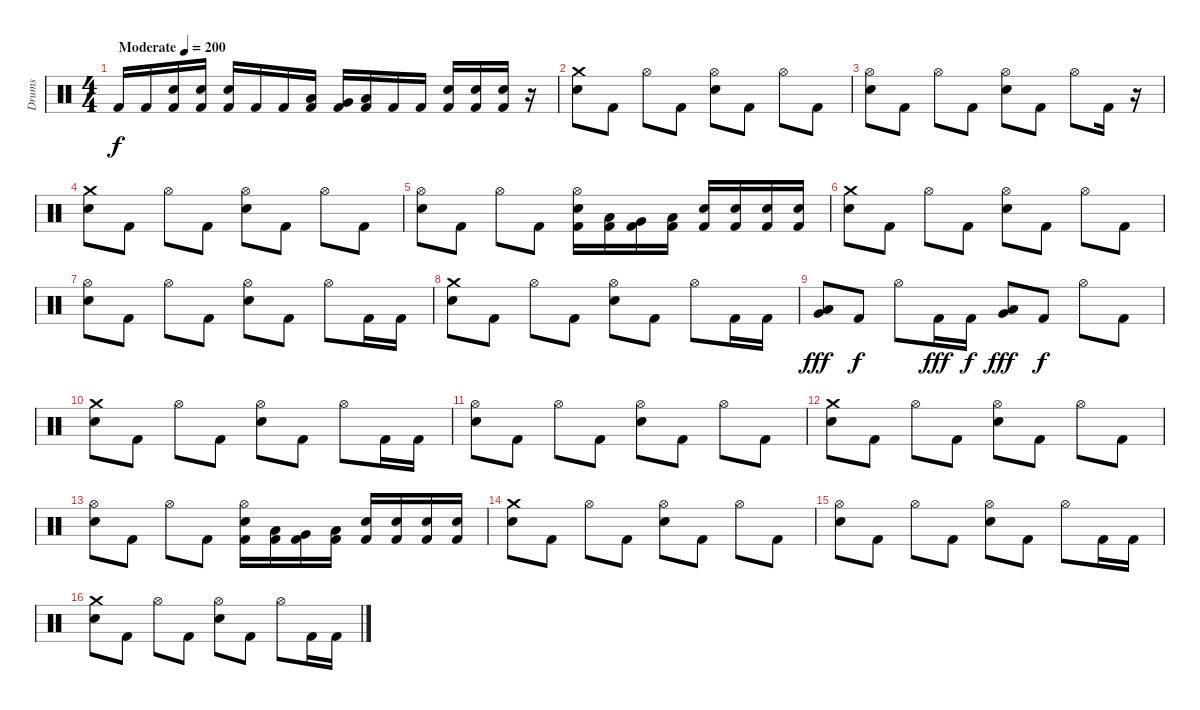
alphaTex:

\track ("Drums" "Drums") {instrument percussion}
\staff {score}
\articulation defaults
\ts (4 4)
\tempo (200 "Moderate")
\clef neutral
\ks c "Kick (hit) 2".16{dy f} "Kick (hit) 2".16
("Electric Snare (hit)" "Kick (hit) 2").16 ("Electric Snare (hit)" "Kick (hit) 2").16 ("Electric Snare (hit)" "Kick (hit) 2").16 "Kick (hit) 2".16 "Kick (hit) 2".16 ("Low Tom (hit)" "Kick (hit) 2").16 ("Very Low Tom (hit)" "Kick (hit) 2").16 ("Low Floor Tom (hit)" "Kick (hit) 2").16 "Kick (hit) 2".16 "Kick (hit) 2".16 ("Electric Snare (hit)" "Kick (hit) 2").16 ("Electric Snare (hit)" "Kick (hit) 2").16 ("Electric Snare (hit)" "Kick (hit) 2").16 r.16 |
("Crash medium (hit)" "Electric Snare (hit)").8 "Kick (hit) 2".8 "Hi-Hat (open)".8 "Kick (hit) 2".8 ("Hi-Hat (open)" "Electric Snare (hit)").8 "Kick (hit) 2".8 "Hi-Hat (open)".8 "Kick (hit) 2".8 |
("Hi-Hat (open)" "Electric Snare (hit)").8 "Kick (hit) 2".8 "Hi-Hat (open)".8 "Kick (hit) 2".8 ("Hi-Hat (open)" "Electric Snare (hit)").8 "Kick (hit) 2".8 "Hi-Hat (open)".8 "Kick (hit) 2".16 r.16 |
("Crash medium (hit)" "Electric Snare (hit)").8 "Kick (hit) 2".8 "Hi-Hat (open)".8 "Kick (hit) 2".8 ("Hi-Hat (open)" "Electric Snare (hit)").8 "Kick (hit) 2".8 "Hi-Hat (open)".8 "Kick (hit) 2".8 |
("Hi-Hat (open)" "Electric Snare (hit)").8 "Kick (hit) 2".8 "Hi-Hat (open)".8 "Kick (hit) 2".8 ("Hi-Hat (open)" "Electric Snare (hit)" "Kick (hit) 2").16 ("Low Tom (hit)" "Kick (hit) 2").16 ("Very Low Tom (hit)" "Kick (hit) 2").16 ("Low Floor Tom (hit)" "Kick (hit) 2").16 ("Electric Snare (hit)" "Kick (hit) 2").16 ("Electric Snare (hit)" "Kick (hit) 2").16 ("Electric Snare (hit)" "Kick (hit) 2").16 ("Electric Snare (hit)" "Kick (hit) 2").16 |
("Crash medium (hit)" "Electric Snare (hit)").8 "Kick (hit) 2".8 "Hi-Hat (open)".8 "Kick (hit) 2".8 ("Hi-Hat (open)" "Electric Snare (hit)").8 "Kick (hit) 2".8 "Hi-Hat (open)".8 "Kick (hit) 2".8 |
("Hi-Hat (open)" "Electric Snare (hit)").8 "Kick (hit) 2".8 "Hi-Hat (open)".8 "Kick (hit) 2".8 ("Hi-Hat (open)" "Electric Snare (hit)").8 "Kick (hit) 2".8 "Hi-Hat (open)".8 "Kick (hit) 2".16 "Kick (hit) 2".16 |
("Crash medium (hit)" "Electric Snare (hit)").8 "Kick (hit) 2".8 "Hi-Hat (open)".8 "Kick (hit) 2".8 ("Hi-Hat (open)" "Electric Snare (hit)").8 "Kick (hit) 2".8 "Hi-Hat (open)".8 "Kick (hit) 2".16 "Kick (hit) 2".16 |
("Very Low Tom (hit)" "Low Floor Tom (hit)").8{dy fff} "Kick (hit) 2".8{dy f} "Hi-Hat (open)".8 "Kick (hit) 2".16{dy fff} "Kick (hit) 2".16{dy f} ("Very Low Tom (hit)" "Low Floor Tom (hit)").8{dy fff} "Kick (hit) 2".8{dy f} "Hi-Hat (open)".8 "Kick (hit) 2".8 |
("Crash medium (hit)" "Electric Snare (hit)").8 "Kick (hit) 2".8 "Hi-Hat (open)".8 "Kick (hit) 2".8 ("Hi-Hat (open)" "Electric Snare (hit)").8 "Kick (hit) 2".8 "Hi-Hat (open)".8 "Kick (hit) 2".16 "Kick (hit) 2".16 |
("Hi-Hat (open)" "Electric Snare (hit)").8 "Kick (hit) 2".8 "Hi-Hat (open)".8 "Kick (hit) 2".8 ("Hi-Hat (open)" "Electric Snare (hit)").8 "Kick (hit) 2".8 "Hi-Hat (open)".8 "Kick (hit) 2".8 |
("Crash medium (hit)" "Electric Snare (hit)").8 "Kick (hit) 2".8 "Hi-Hat (open)".8 "Kick (hit) 2".8 ("Hi-Hat (open)" "Electric Snare (hit)").8 "Kick (hit) 2".8 "Hi-Hat (open)".8 "Kick (hit) 2".8 |
("Hi-Hat (open)" "Electric Snare (hit)").8 "Kick (hit) 2".8 "Hi-Hat (open)".8 "Kick (hit) 2".8 ("Hi-Hat (open)" "Electric Snare (hit)" "Kick (hit) 2").16 ("Low Tom (hit)" "Kick (hit) 2").16 ("Very Low Tom (hit)" "Kick (hit) 2").16 ("Low Floor Tom (hit)" "Kick (hit) 2").16 ("Electric Snare (hit)" "Kick (hit) 2").16 ("Electric Snare (hit)" "Kick (hit) 2").16 ("Electric Snare (hit)" "Kick (hit) 2").16 ("Electric Snare (hit)" "Kick (hit) 2").16 |
("Crash medium (hit)" "Electric Snare (hit)").8 "Kick (hit) 2".8 "Hi-Hat (open)".8 "Kick (hit) 2".8 ("Hi-Hat (open)" "Electric Snare (hit)").8 "Kick (hit) 2".8 "Hi-Hat (open)".8 "Kick (hit) 2".8 |
("Hi-Hat (open)" "Electric Snare (hit)").8 "Kick (hit) 2".8 "Hi-Hat (open)".8 "Kick (hit) 2".8 ("Hi-Hat (open)" "Electric Snare (hit)").8 "Kick (hit) 2".8 "Hi-Hat (open)".8 "Kick (hit) 2".16 "Kick (hit) 2".16 |
("Crash medium (hit)" "Electric Snare (hit)").8 "Kick (hit) 2".8 "Hi-Hat (open)".8 "Kick (hit) 2".8 ("Hi-Hat (open)" "Electric Snare (hit)").8 "Kick (hit) 2".8 "Hi-Hat (open)".8 "Kick (hit) 2".16 "Kick (hit) 2".16
